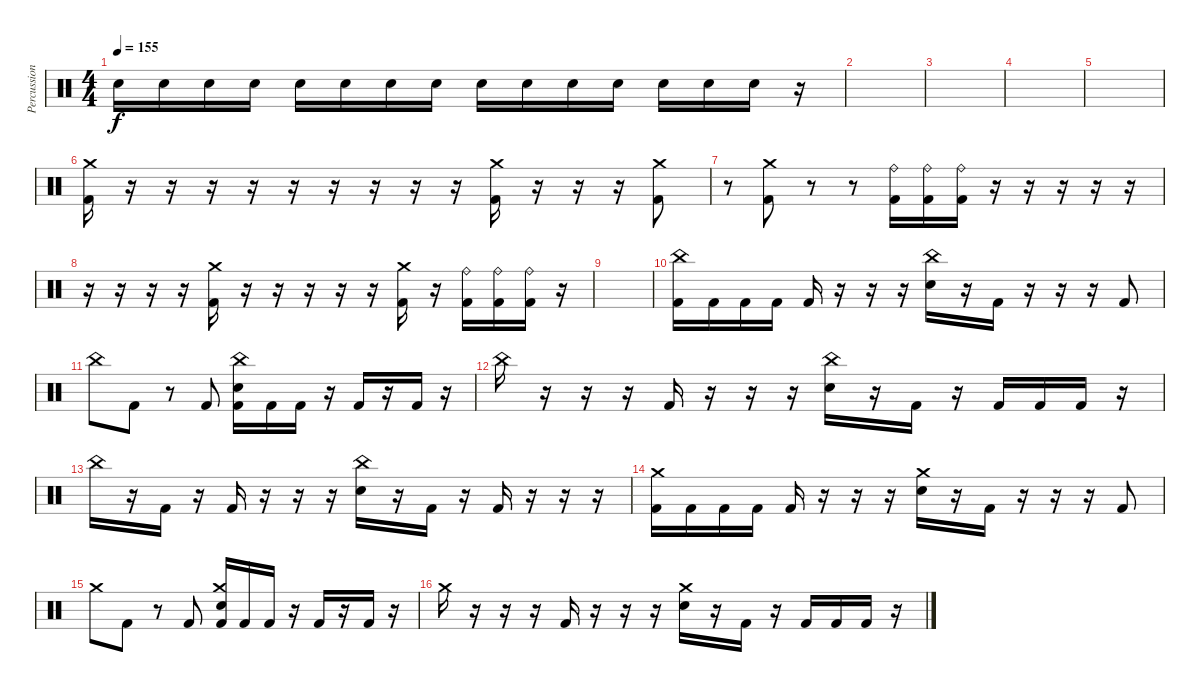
\track ("Percussion" "Percussion") {instrument percussion}
\staff {score}
\articulation defaults
\ts (4 4)
\tempo 155
\clef neutral
\ks c "Electric Snare (hit)".16{dy f} "Electric Snare (hit)".16 "Electric Snare (hit)".16 "Electric Snare (hit)".16 "Electric Snare (hit)".16 "Electric Snare (hit)".16 "Electric Snare (hit)".16 "Electric Snare (hit)".16 "Electric Snare (hit)".16 "Electric Snare (hit)".16 "Electric Snare (hit)".16 "Electric Snare (hit)".16 "Electric Snare (hit)".16 "Electric Snare (hit)".16 "Electric Snare (hit)".16
r.16 |
|
|
|
|
("Crash medium (hit)" "Kick (hit) 2").16 r.16 r.16 r.16 r.16 r.16 r.16 r.16 r.16 r.16 ("Crash medium (hit)" "Kick (hit) 2").16 r.16 r.16 r.16 ("Crash medium (hit)" "Kick (hit) 2").8 |
r.8 ("Crash medium (hit)" "Kick (hit) 2").8 r.8 r.8 ("Ride (bell)" "Kick (hit) 2").16 ("Ride (bell)" "Kick (hit) 2").16 ("Ride (bell)" "Kick (hit) 2").16 r.16 r.16 r.16 r.16 r.16 |
r.16 r.16 r.16 r.16 ("Crash medium (hit)" "Kick (hit) 2").16 r.16 r.16 r.16 r.16 r.16 ("Crash medium (hit)" "Kick (hit) 2").16 r.16 ("Ride (bell)" "Kick (hit) 2").16 ("Ride (bell)" "Kick (hit) 2").16 ("Ride (bell)" "Kick (hit) 2").16 r.16 |
|
("China (hit)" "Kick (hit) 2").16 "Kick (hit) 2".16 "Kick (hit) 2".16 "Kick (hit) 2".16 "Kick (hit) 2".16 r.16 r.16 r.16 ("China (hit)" "Electric Snare (hit)").16 r.16 "Kick (hit) 2".16 r.16 r.16 r.16 "Kick (hit) 2".8 |
"China (hit)".8 "Kick (hit) 2".8 r.8 "Kick (hit) 2".8 ("China (hit)" "Electric Snare (hit)" "Kick (hit) 2").16 "Kick (hit) 2".16 "Kick (hit) 2".16 r.16 "Kick (hit) 2".16 r.16 "Kick (hit) 2".16 r.16 |
"China (hit)".16 r.16 r.16 r.16 "Kick (hit) 2".16 r.16 r.16 r.16 ("China (hit)" "Electric Snare (hit)").16 r.16 "Kick (hit) 2".16 r.16 "Kick (hit) 2".16 "Kick (hit) 2".16 "Kick (hit) 2".16 r.16 |
"China (hit)".16 r.16 "Kick (hit) 2".16 r.16 "Kick (hit) 2".16 r.16 r.16 r.16 ("China (hit)" "Electric Snare (hit)").16 r.16 "Kick (hit) 2".16 r.16 "Kick (hit) 2".16 r.16 r.16 r.16 |
("Crash medium (hit)" "Kick (hit) 2").16 "Kick (hit) 2".16 "Kick (hit) 2".16 "Kick (hit) 2".16 "Kick (hit) 2".16 r.16 r.16 r.16 ("Crash medium (hit)" "Electric Snare (hit)").16 r.16 "Kick (hit) 2".16 r.16 r.16 r.16 "Kick (hit) 2".8 |
"Crash medium (hit)".8 "Kick (hit) 2".8 r.8 "Kick (hit) 2".8 ("Crash medium (hit)" "Electric Snare (hit)" "Kick (hit) 2").16 "Kick (hit) 2".16 "Kick (hit) 2".16 r.16 "Kick (hit) 2".16 r.16 "Kick (hit) 2".16 r.16 |
"Crash medium (hit)".16 r.16 r.16 r.16 "Kick (hit) 2".16 r.16 r.16 r.16 ("Crash medium (hit)" "Electric Snare (hit)").16 r.16 "Kick (hit) 2".16 r.16 "Kick (hit) 2".16 "Kick (hit) 2".16 "Kick (hit) 2".16 r.16
